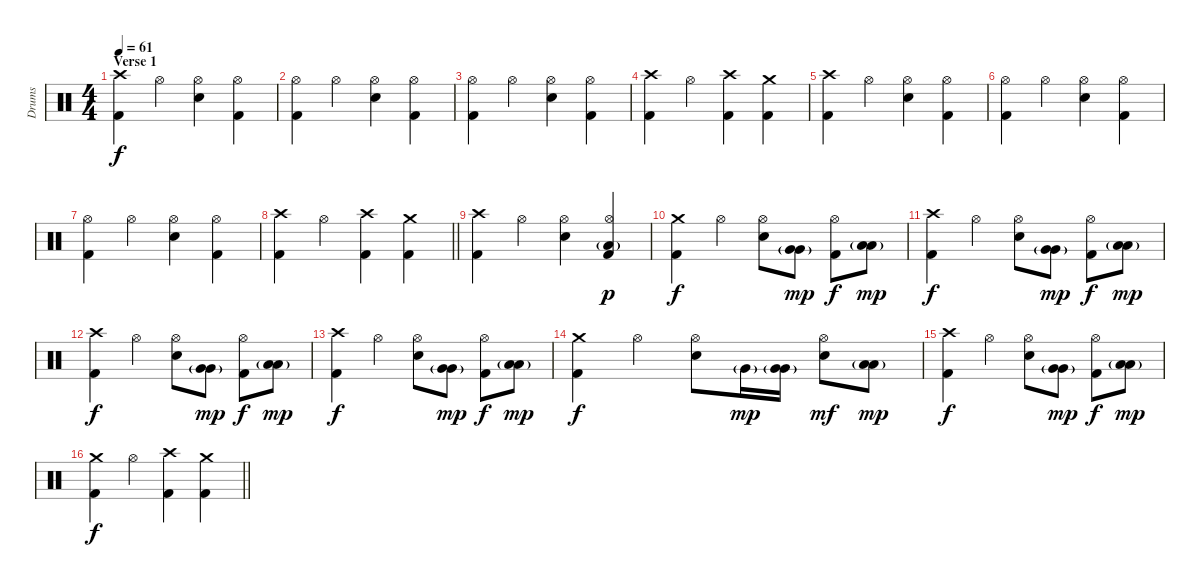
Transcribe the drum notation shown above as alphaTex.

\track ("Drums" "Drums") {instrument percussion}
\staff {score}
\articulation defaults
\ts (4 4)
\section ("" "Verse 1")
\tempo 61
\clef neutral
\ks c
("Crash high (hit)" "Kick (hit) 2").4{dy f} "Hi-Hat (open)".4 ("Hi-Hat (open)" "Electric Snare (hit)").4 ("Hi-Hat (open)" "Kick (hit) 2").4 |
("Hi-Hat (open)" "Kick (hit) 2").4 "Hi-Hat (open)".4 ("Hi-Hat (open)" "Electric Snare (hit)").4 ("Hi-Hat (open)" "Kick (hit) 2").4 |
("Hi-Hat (open)" "Kick (hit) 2").4 "Hi-Hat (open)".4 ("Hi-Hat (open)" "Electric Snare (hit)").4 ("Hi-Hat (open)" "Kick (hit) 2").4 |
("Crash high (hit)" "Kick (hit) 2").4 "Hi-Hat (open)".4 ("Crash high (hit)" "Kick (hit) 2").4 ("Crash medium (hit)" "Kick (hit) 2").4 |
("Crash high (hit)" "Kick (hit) 2").4 "Hi-Hat (open)".4 ("Hi-Hat (open)" "Electric Snare (hit)").4 ("Hi-Hat (open)" "Kick (hit) 2").4 |
("Hi-Hat (open)" "Kick (hit) 2").4 "Hi-Hat (open)".4 ("Hi-Hat (open)" "Electric Snare (hit)").4 ("Hi-Hat (open)" "Kick (hit) 2").4 |
("Hi-Hat (open)" "Kick (hit) 2").4 "Hi-Hat (open)".4 ("Hi-Hat (open)" "Electric Snare (hit)").4 ("Hi-Hat (open)" "Kick (hit) 2").4 |
\barLineRight lightlight
("Crash high (hit)" "Kick (hit) 2").4 "Hi-Hat (open)".4 ("Crash high (hit)" "Kick (hit) 2").4 ("Crash medium (hit)" "Kick (hit) 2").4 |
\section ("" "")
("Crash high (hit)" "Kick (hit) 2").4 "Hi-Hat (open)".4 ("Hi-Hat (open)" "Electric Snare (hit)").4 ("Hi-Hat (open)" "Low Floor Tom (hit)"{g} "Kick (hit) 2").4{dy p} |
("Crash medium (hit)" "Kick (hit) 2").4{dy f} "Hi-Hat (open)".4 ("Hi-Hat (open)" "Electric Snare (hit)").8 ("Very Low Tom (hit)"{g} "Very Low Tom (hit)"{g}).8{dy mp} ("Hi-Hat (open)" "Kick (hit) 2").8{dy f} ("Low Floor Tom (hit)"{g} "Low Floor Tom (hit)"{g}).8{dy mp} |
("Crash high (hit)" "Kick (hit) 2").4{dy f} "Hi-Hat (open)".4 ("Hi-Hat (open)" "Electric Snare (hit)").8 ("Very Low Tom (hit)"{g} "Very Low Tom (hit)"{g}).8{dy mp} ("Hi-Hat (open)" "Kick (hit) 2").8{dy f} ("Low Floor Tom (hit)"{g} "Low Floor Tom (hit)"{g}).8{dy mp} |
("Crash high (hit)" "Kick (hit) 2").4{dy f} "Hi-Hat (open)".4 ("Hi-Hat (open)" "Electric Snare (hit)").8 ("Very Low Tom (hit)"{g} "Very Low Tom (hit)"{g}).8{dy mp} ("Hi-Hat (open)" "Kick (hit) 2").8{dy f} ("Low Floor Tom (hit)"{g} "Low Floor Tom (hit)"{g}).8{dy mp} |
("Crash high (hit)" "Kick (hit) 2").4{dy f} "Hi-Hat (open)".4 ("Hi-Hat (open)" "Electric Snare (hit)").8 ("Very Low Tom (hit)"{g} "Very Low Tom (hit)"{g}).8{dy mp} ("Hi-Hat (open)" "Kick (hit) 2").8{dy f} ("Low Floor Tom (hit)"{g} "Low Floor Tom (hit)"{g}).8{dy mp} |
("Crash medium (hit)" "Kick (hit) 2").4{dy f} "Hi-Hat (open)".4 ("Hi-Hat (open)" "Electric Snare (hit)").8 "Very Low Tom (hit)"{g}.16{dy mp} ("Very Low Tom (hit)"{g} "Very Low Tom (hit)"{g}).16 ("Hi-Hat (open)" "Electric Snare (hit)").8{dy mf} ("Low Floor Tom (hit)"{g} "Low Floor Tom (hit)"{g}).8{dy mp} |
("Crash high (hit)" "Kick (hit) 2").4{dy f} "Hi-Hat (open)".4 ("Hi-Hat (open)" "Electric Snare (hit)").8 ("Very Low Tom (hit)"{g} "Very Low Tom (hit)"{g}).8{dy mp} ("Hi-Hat (open)" "Kick (hit) 2").8{dy f} ("Low Floor Tom (hit)"{g} "Low Floor Tom (hit)"{g}).8{dy mp} |
\barLineRight lightlight
("Crash medium (hit)" "Kick (hit) 2").4{dy f} "Hi-Hat (open)".4 ("Crash high (hit)" "Kick (hit) 2").4 ("Crash medium (hit)" "Kick (hit) 2").4
